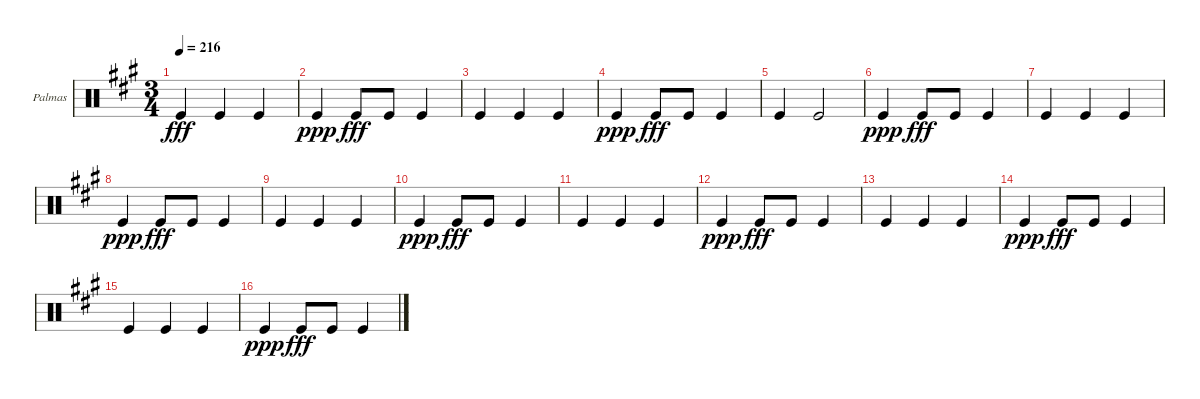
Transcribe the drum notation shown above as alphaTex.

\defaultSystemsLayout 4
\bracketExtendMode groupsimilarinstruments
\firstSystemTrackNameOrientation horizontal
\otherSystemsTrackNameOrientation horizontal
\track ("Palmas" "Palmas") {instrument percussion}
\staff {score}
\articulation defaults
\ts (3 4)
\tempo 216
\clef neutral
\ks a "Kick (hit)".4{dy fff} "Kick (hit)".4 "Kick (hit)".4
|
"Kick (hit)".4{dy ppp} "Kick (hit)".8{dy fff} "Kick (hit)".8 "Kick (hit)".4 |
"Kick (hit)".4 "Kick (hit)".4 "Kick (hit)".4 |
"Kick (hit)".4{dy ppp} "Kick (hit)".8{dy fff} "Kick (hit)".8 "Kick (hit)".4 |
"Kick (hit)".4 "Kick (hit)".2 |
"Kick (hit)".4{dy ppp} "Kick (hit)".8{dy fff} "Kick (hit)".8 "Kick (hit)".4 |
"Kick (hit)".4 "Kick (hit)".4 "Kick (hit)".4 |
"Kick (hit)".4{dy ppp} "Kick (hit)".8{dy fff} "Kick (hit)".8 "Kick (hit)".4 |
"Kick (hit)".4 "Kick (hit)".4 "Kick (hit)".4 |
"Kick (hit)".4{dy ppp} "Kick (hit)".8{dy fff} "Kick (hit)".8 "Kick (hit)".4 |
"Kick (hit)".4 "Kick (hit)".4 "Kick (hit)".4 |
"Kick (hit)".4{dy ppp} "Kick (hit)".8{dy fff} "Kick (hit)".8 "Kick (hit)".4 |
"Kick (hit)".4 "Kick (hit)".4 "Kick (hit)".4 |
"Kick (hit)".4{dy ppp} "Kick (hit)".8{dy fff} "Kick (hit)".8 "Kick (hit)".4 |
"Kick (hit)".4 "Kick (hit)".4 "Kick (hit)".4 |
"Kick (hit)".4{dy ppp} "Kick (hit)".8{dy fff} "Kick (hit)".8 "Kick (hit)".4
